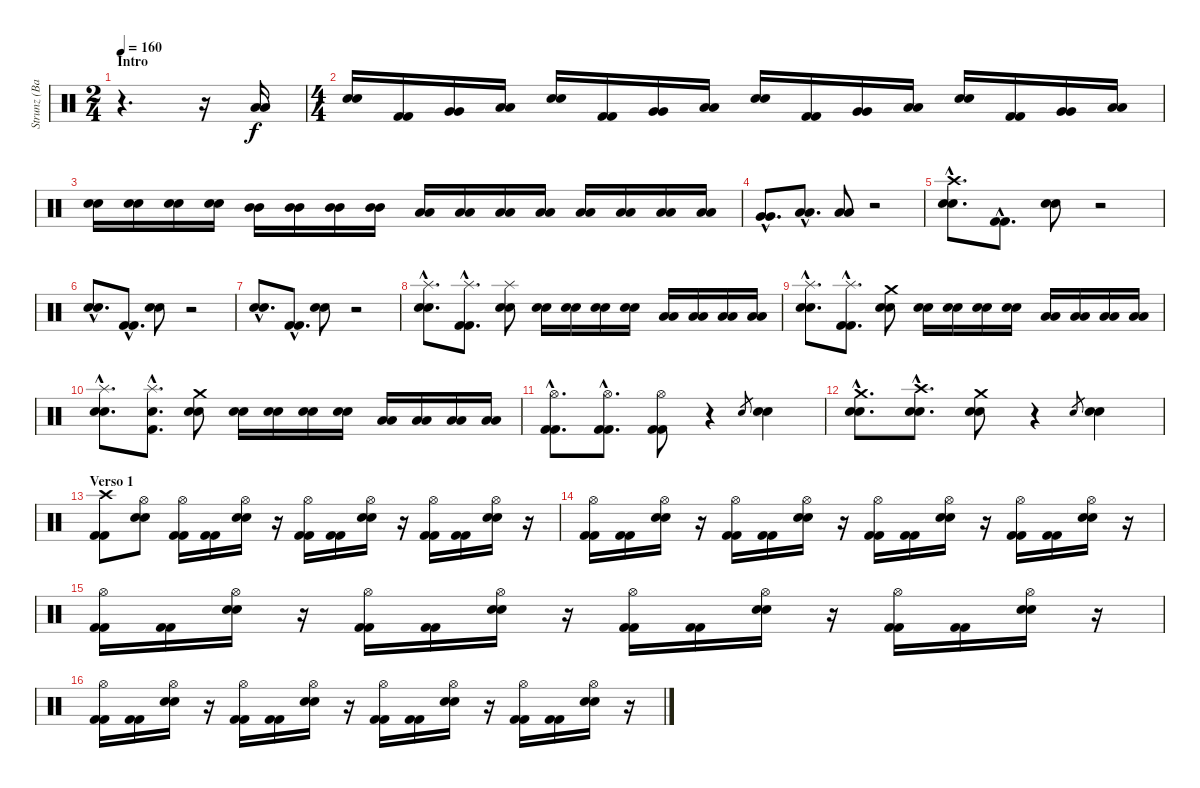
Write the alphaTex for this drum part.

\track ("Strunz (Bateria)" "Strunz (Ba") {instrument percussion}
\staff {score}
\articulation defaults
\ts (2 4)
\section ("" "Intro")
\tempo 160
\clef neutral
\ks c
r.4{d dy f} r.16 ("Low Floor Tom (hit)" "Low Floor Tom (hit)").16 |
\ts (4 4)
("Snare (hit) 2" "Snare (hit) 2").16 ("Kick (hit) 2" "Kick (hit) 2").16 ("Very Low Tom (hit)" "Very Low Tom (hit)").16 ("Low Floor Tom (hit)" "Low Floor Tom (hit)").16 ("Snare (hit) 2" "Snare (hit) 2").16 ("Kick (hit) 2" "Kick (hit) 2").16 ("Very Low Tom (hit)" "Very Low Tom (hit)").16 ("Low Floor Tom (hit)" "Low Floor Tom (hit)").16 ("Snare (hit) 2" "Snare (hit) 2").16 ("Kick (hit) 2" "Kick (hit) 2").16 ("Very Low Tom (hit)" "Very Low Tom (hit)").16 ("Low Floor Tom (hit)" "Low Floor Tom (hit)").16 ("Snare (hit) 2" "Snare (hit) 2").16 ("Kick (hit) 2" "Kick (hit) 2").16 ("Very Low Tom (hit)" "Very Low Tom (hit)").16 ("Low Floor Tom (hit)" "Low Floor Tom (hit)").16 |
("Snare (hit) 2" "Snare (hit) 2").16 ("Snare (hit) 2" "Snare (hit) 2").16 ("Snare (hit) 2" "Snare (hit) 2").16 ("Snare (hit) 2" "Snare (hit) 2").16 ("Mid Tom (hit)" "Mid Tom (hit)").16 ("Mid Tom (hit)" "Mid Tom (hit)").16 ("Mid Tom (hit)" "Mid Tom (hit)").16 ("Mid Tom (hit)" "Mid Tom (hit)").16 ("Low Tom (hit)" "Low Tom (hit)").16 ("Low Tom (hit)" "Low Tom (hit)").16 ("Low Tom (hit)" "Low Tom (hit)").16 ("Low Tom (hit)" "Low Tom (hit)").16 ("Low Floor Tom (hit)" "Low Floor Tom (hit)").16 ("Low Floor Tom (hit)" "Low Floor Tom (hit)").16 ("Low Floor Tom (hit)" "Low Floor Tom (hit)").16 ("Low Floor Tom (hit)" "Low Floor Tom (hit)").16 |
("Very Low Tom (hit)"{hac} "Very Low Tom (hit)"{hac}).8{d} ("Low Tom (hit)"{hac} "Low Tom (hit)"{hac}).8{d} ("Low Floor Tom (hit)" "Low Floor Tom (hit)").8 r.2 |
("Crash high (hit)"{hac} "Snare (hit) 2"{hac} "Snare (hit) 2"{hac}).8{d} ("Kick (hit) 2"{hac} "Kick (hit) 2"{hac}).8{d} ("Snare (hit) 2" "Snare (hit) 2").8 r.2 |
("Snare (hit) 2"{hac} "Snare (hit) 2"{hac}).8{d} ("Kick (hit) 2"{hac} "Kick (hit) 2"{hac}).8{d} ("Snare (hit) 2" "Snare (hit) 2").8 r.2 |
("Snare (hit) 2"{hac} "Snare (hit) 2"{hac}).8{d} ("Kick (hit) 2"{hac} "Kick (hit) 2"{hac}).8{d} ("Snare (hit) 2" "Snare (hit) 2").8 r.2 |
("Splash (hit)"{hac} "Snare (hit) 2"{hac} "Snare (hit) 2"{hac}).8{d} ("Splash (hit)"{hac} "Kick (hit) 2"{hac} "Kick (hit) 2"{hac}).8{d} ("Splash (hit)" "Snare (hit) 2" "Snare (hit) 2").8 ("Snare (hit) 2" "Snare (hit) 2").16 ("Snare (hit) 2" "Snare (hit) 2").16 ("Snare (hit) 2" "Snare (hit) 2").16 ("Snare (hit) 2" "Snare (hit) 2").16 ("Low Tom (hit)" "Low Tom (hit)").16 ("Low Tom (hit)" "Low Tom (hit)").16 ("Low Floor Tom (hit)" "Low Floor Tom (hit)").16 ("Low Floor Tom (hit)" "Low Floor Tom (hit)").16 |
("Splash (hit)"{hac} "Snare (hit) 2"{hac} "Snare (hit) 2"{hac}).8{d} ("Splash (hit)"{hac} "Kick (hit) 2"{hac} "Kick (hit) 2"{hac}).8{d} ("Crash medium (hit)" "Snare (hit) 2" "Snare (hit) 2").8 ("Snare (hit) 2" "Snare (hit) 2").16 ("Snare (hit) 2" "Snare (hit) 2").16 ("Snare (hit) 2" "Snare (hit) 2").16 ("Snare (hit) 2" "Snare (hit) 2").16 ("Low Tom (hit)" "Low Tom (hit)").16 ("Low Tom (hit)" "Low Tom (hit)").16 ("Low Floor Tom (hit)" "Low Floor Tom (hit)").16 ("Low Floor Tom (hit)" "Low Floor Tom (hit)").16 |
("Splash (hit)"{hac} "Snare (hit) 2"{hac} "Snare (hit) 2"{hac}).8{d} ("Splash (hit)"{hac} "Kick (hit) 2"{hac} "Snare (hit) 2"{hac}).8{d} ("Crash medium (hit)" "Snare (hit) 2" "Snare (hit) 2").8 ("Snare (hit) 2" "Snare (hit) 2").16 ("Snare (hit) 2" "Snare (hit) 2").16 ("Snare (hit) 2" "Snare (hit) 2").16 ("Snare (hit) 2" "Snare (hit) 2").16 ("Low Tom (hit)" "Low Tom (hit)").16 ("Low Tom (hit)" "Low Tom (hit)").16 ("Low Floor Tom (hit)" "Low Floor Tom (hit)").16 ("Low Floor Tom (hit)" "Low Floor Tom (hit)").16 |
("Hi-Hat (open)"{hac} "Kick (hit) 2"{hac} "Kick (hit) 2"{hac}).8{d} ("Hi-Hat (open)"{hac} "Kick (hit) 2"{hac} "Kick (hit) 2"{hac}).8{d} ("Hi-Hat (open)" "Kick (hit) 2" "Kick (hit) 2").8 r.4 "Snare (hit) 2".8{gr} ("Snare (hit) 2" "Snare (hit) 2").4 |
("Crash medium (hit)"{hac} "Snare (hit) 2"{hac} "Snare (hit) 2"{hac}).8{d} ("Crash high (hit)"{hac} "Snare (hit) 2"{hac} "Snare (hit) 2"{hac}).8{d} ("Crash medium (hit)" "Snare (hit) 2" "Snare (hit) 2").8 r.4 "Snare (hit) 2".8{gr} ("Snare (hit) 2" "Snare (hit) 2").4 |
\section ("" "Verso 1")
("Crash high (hit)" "Kick (hit) 2" "Kick (hit) 2").8 ("Hi-Hat (open)" "Snare (hit) 2" "Snare (hit) 2").8 ("Hi-Hat (open)" "Kick (hit) 2" "Kick (hit) 2").16 ("Kick (hit) 2" "Kick (hit) 2").16 ("Hi-Hat (open)" "Snare (hit) 2" "Snare (hit) 2").16 r.16 ("Hi-Hat (open)" "Kick (hit) 2" "Kick (hit) 2").16 ("Kick (hit) 2" "Kick (hit) 2").16 ("Hi-Hat (open)" "Snare (hit) 2" "Snare (hit) 2").16 r.16 ("Hi-Hat (open)" "Kick (hit) 2" "Kick (hit) 2").16 ("Kick (hit) 2" "Kick (hit) 2").16 ("Hi-Hat (open)" "Snare (hit) 2" "Snare (hit) 2").16 r.16 |
("Hi-Hat (open)" "Kick (hit) 2" "Kick (hit) 2").16 ("Kick (hit) 2" "Kick (hit) 2").16 ("Hi-Hat (open)" "Snare (hit) 2" "Snare (hit) 2").16 r.16 ("Hi-Hat (open)" "Kick (hit) 2" "Kick (hit) 2").16 ("Kick (hit) 2" "Kick (hit) 2").16 ("Hi-Hat (open)" "Snare (hit) 2" "Snare (hit) 2").16 r.16 ("Hi-Hat (open)" "Kick (hit) 2" "Kick (hit) 2").16 ("Kick (hit) 2" "Kick (hit) 2").16 ("Hi-Hat (open)" "Snare (hit) 2" "Snare (hit) 2").16 r.16 ("Hi-Hat (open)" "Kick (hit) 2" "Kick (hit) 2").16 ("Kick (hit) 2" "Kick (hit) 2").16 ("Hi-Hat (open)" "Snare (hit) 2" "Snare (hit) 2").16 r.16 |
("Hi-Hat (open)" "Kick (hit) 2" "Kick (hit) 2").16 ("Kick (hit) 2" "Kick (hit) 2").16 ("Hi-Hat (open)" "Snare (hit) 2" "Snare (hit) 2").16 r.16 ("Hi-Hat (open)" "Kick (hit) 2" "Kick (hit) 2").16 ("Kick (hit) 2" "Kick (hit) 2").16 ("Hi-Hat (open)" "Snare (hit) 2" "Snare (hit) 2").16 r.16 ("Hi-Hat (open)" "Kick (hit) 2" "Kick (hit) 2").16 ("Kick (hit) 2" "Kick (hit) 2").16 ("Hi-Hat (open)" "Snare (hit) 2" "Snare (hit) 2").16 r.16 ("Hi-Hat (open)" "Kick (hit) 2" "Kick (hit) 2").16 ("Kick (hit) 2" "Kick (hit) 2").16 ("Hi-Hat (open)" "Snare (hit) 2" "Snare (hit) 2").16 r.16 |
("Hi-Hat (open)" "Kick (hit) 2" "Kick (hit) 2").16 ("Kick (hit) 2" "Kick (hit) 2").16 ("Hi-Hat (open)" "Snare (hit) 2" "Snare (hit) 2").16 r.16 ("Hi-Hat (open)" "Kick (hit) 2" "Kick (hit) 2").16 ("Kick (hit) 2" "Kick (hit) 2").16 ("Hi-Hat (open)" "Snare (hit) 2" "Snare (hit) 2").16 r.16 ("Hi-Hat (open)" "Kick (hit) 2" "Kick (hit) 2").16 ("Kick (hit) 2" "Kick (hit) 2").16 ("Hi-Hat (open)" "Snare (hit) 2" "Snare (hit) 2").16 r.16 ("Hi-Hat (open)" "Kick (hit) 2" "Kick (hit) 2").16 ("Kick (hit) 2" "Kick (hit) 2").16 ("Hi-Hat (open)" "Snare (hit) 2" "Snare (hit) 2").16 r.16
